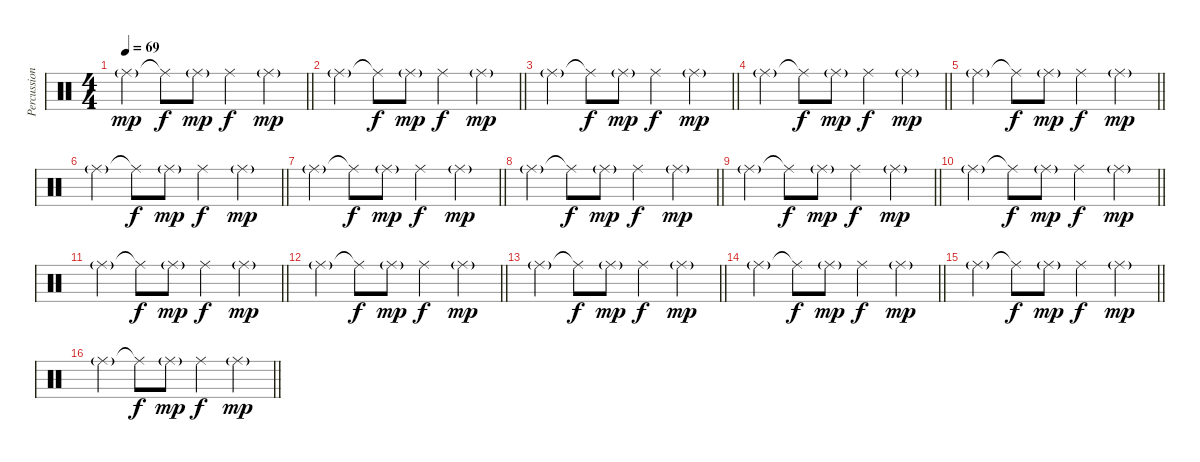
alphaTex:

\track ("Percussions" "Percussion") {instrument percussion}
\staff {score}
\articulation defaults
\ts (4 4)
\tempo 69
\clef neutral
\barLineRight lightlight
\ks c "Ride (middle)"{g}.4{dy mp} "Ride (middle)"{t}.8{dy f} "Ride (middle)"{g}.8{dy mp} "Ride (middle)".4{dy f} "Ride (middle)"{g}.4{dy mp}
|
\barLineRight lightlight "Ride (middle)"{g}.4 "Ride (middle)"{t}.8{dy f} "Ride (middle)"{g}.8{dy mp} "Ride (middle)".4{dy f} "Ride (middle)"{g}.4{dy mp}
|
\barLineRight lightlight "Ride (middle)"{g}.4 "Ride (middle)"{t}.8{dy f} "Ride (middle)"{g}.8{dy mp} "Ride (middle)".4{dy f} "Ride (middle)"{g}.4{dy mp}
|
\barLineRight lightlight "Ride (middle)"{g}.4 "Ride (middle)"{t}.8{dy f} "Ride (middle)"{g}.8{dy mp} "Ride (middle)".4{dy f} "Ride (middle)"{g}.4{dy mp}
|
\barLineRight lightlight "Ride (middle)"{g}.4 "Ride (middle)"{t}.8{dy f} "Ride (middle)"{g}.8{dy mp} "Ride (middle)".4{dy f} "Ride (middle)"{g}.4{dy mp}
|
\barLineRight lightlight "Ride (middle)"{g}.4 "Ride (middle)"{t}.8{dy f} "Ride (middle)"{g}.8{dy mp} "Ride (middle)".4{dy f} "Ride (middle)"{g}.4{dy mp}
|
\barLineRight lightlight "Ride (middle)"{g}.4 "Ride (middle)"{t}.8{dy f} "Ride (middle)"{g}.8{dy mp} "Ride (middle)".4{dy f} "Ride (middle)"{g}.4{dy mp}
|
\barLineRight lightlight "Ride (middle)"{g}.4 "Ride (middle)"{t}.8{dy f} "Ride (middle)"{g}.8{dy mp} "Ride (middle)".4{dy f} "Ride (middle)"{g}.4{dy mp}
|
\barLineRight lightlight "Ride (middle)"{g}.4 "Ride (middle)"{t}.8{dy f} "Ride (middle)"{g}.8{dy mp} "Ride (middle)".4{dy f} "Ride (middle)"{g}.4{dy mp}
|
\barLineRight lightlight "Ride (middle)"{g}.4 "Ride (middle)"{t}.8{dy f} "Ride (middle)"{g}.8{dy mp} "Ride (middle)".4{dy f} "Ride (middle)"{g}.4{dy mp}
|
\barLineRight lightlight "Ride (middle)"{g}.4 "Ride (middle)"{t}.8{dy f} "Ride (middle)"{g}.8{dy mp} "Ride (middle)".4{dy f} "Ride (middle)"{g}.4{dy mp}
|
\barLineRight lightlight "Ride (middle)"{g}.4 "Ride (middle)"{t}.8{dy f} "Ride (middle)"{g}.8{dy mp} "Ride (middle)".4{dy f} "Ride (middle)"{g}.4{dy mp}
|
\barLineRight lightlight "Ride (middle)"{g}.4 "Ride (middle)"{t}.8{dy f} "Ride (middle)"{g}.8{dy mp} "Ride (middle)".4{dy f} "Ride (middle)"{g}.4{dy mp}
|
\barLineRight lightlight "Ride (middle)"{g}.4 "Ride (middle)"{t}.8{dy f} "Ride (middle)"{g}.8{dy mp} "Ride (middle)".4{dy f} "Ride (middle)"{g}.4{dy mp}
|
\barLineRight lightlight "Ride (middle)"{g}.4 "Ride (middle)"{t}.8{dy f} "Ride (middle)"{g}.8{dy mp} "Ride (middle)".4{dy f} "Ride (middle)"{g}.4{dy mp}
|
\barLineRight lightlight "Ride (middle)"{g}.4 "Ride (middle)"{t}.8{dy f} "Ride (middle)"{g}.8{dy mp} "Ride (middle)".4{dy f} "Ride (middle)"{g}.4{dy mp}
